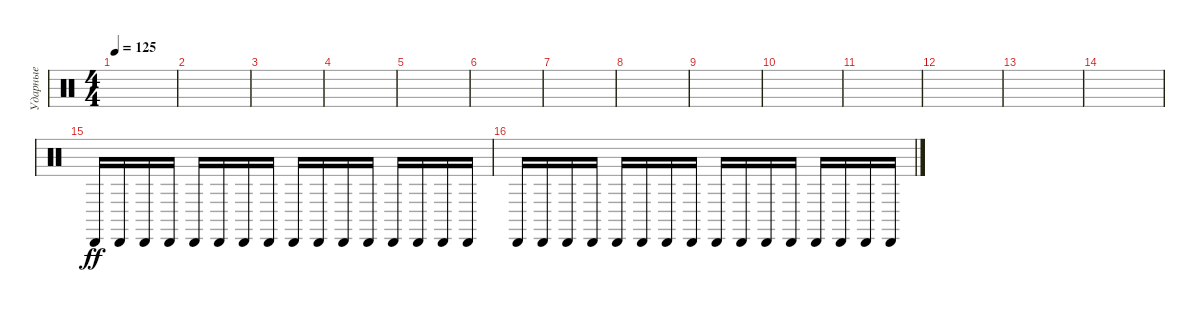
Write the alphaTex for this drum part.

\track ("Ударные" "Ударные") {instrument percussion}
\staff {score}
\articulation defaults
\ts (4 4)
\tempo 125
\clef neutral
\ks c
|
|
|
|
|
|
|
|
|
|
|
|
|
|
"Cabasa (hit)".16{dy ff} "Cabasa (hit)".16 "Cabasa (hit)".16 "Cabasa (hit)".16 "Cabasa (hit)".16 "Cabasa (hit)".16 "Cabasa (hit)".16 "Cabasa (hit)".16 "Cabasa (hit)".16 "Cabasa (hit)".16 "Cabasa (hit)".16 "Cabasa (hit)".16 "Cabasa (hit)".16 "Cabasa (hit)".16 "Cabasa (hit)".16 "Cabasa (hit)".16 |
"Cabasa (hit)".16 "Cabasa (hit)".16 "Cabasa (hit)".16 "Cabasa (hit)".16 "Cabasa (hit)".16 "Cabasa (hit)".16 "Cabasa (hit)".16 "Cabasa (hit)".16 "Cabasa (hit)".16 "Cabasa (hit)".16 "Cabasa (hit)".16 "Cabasa (hit)".16 "Cabasa (hit)".16 "Cabasa (hit)".16 "Cabasa (hit)".16 "Cabasa (hit)".16
